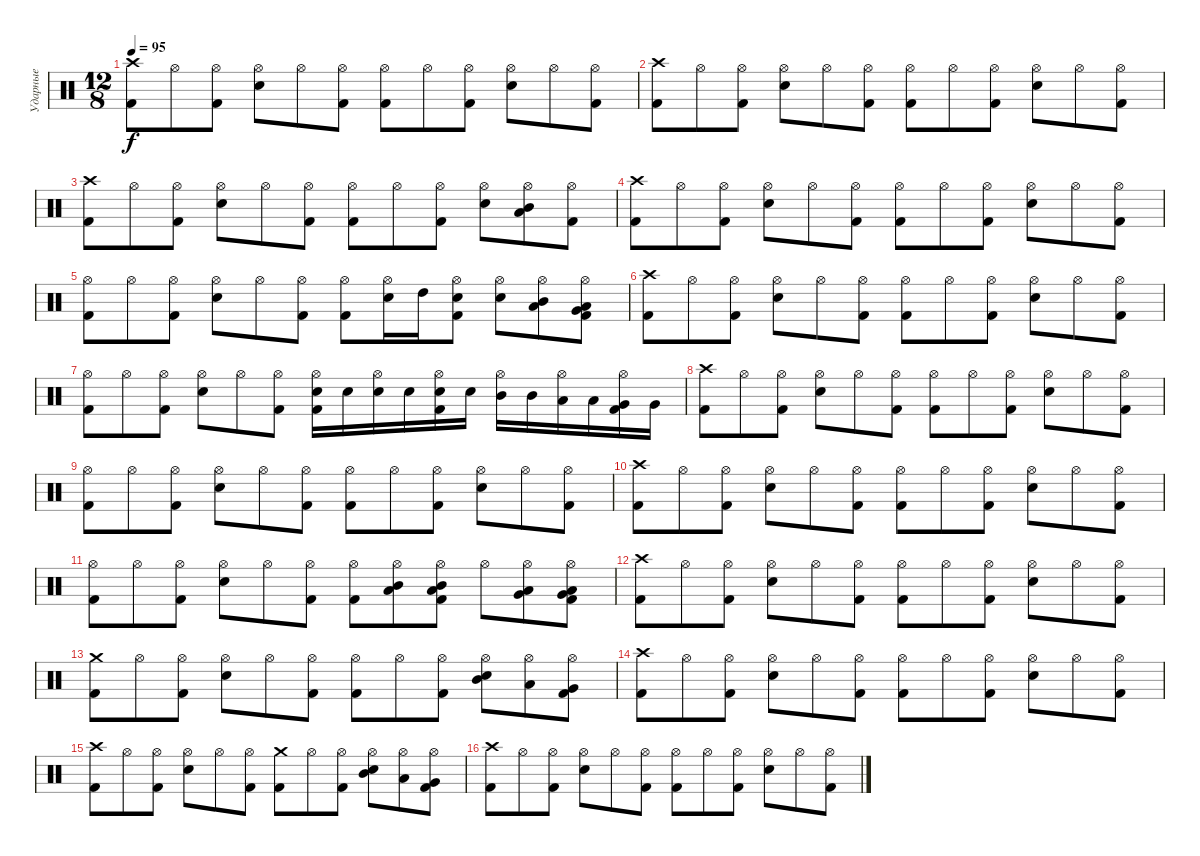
\track ("Ударные" "Ударные") {instrument percussion}
\staff {score}
\articulation defaults
\ts (12 8)
\tempo 95
\clef neutral
\ks c
("Crash high (hit)" "Kick (hit) 2").8{dy f} "Hi-Hat (open)".8 ("Hi-Hat (open)" "Kick (hit) 2").8 ("Hi-Hat (open)" "Electric Snare (hit)").8 "Hi-Hat (open)".8 ("Hi-Hat (open)" "Kick (hit) 2").8 ("Hi-Hat (open)" "Kick (hit) 2").8 "Hi-Hat (open)".8 ("Hi-Hat (open)" "Kick (hit) 2").8 ("Hi-Hat (open)" "Electric Snare (hit)").8 "Hi-Hat (open)".8 ("Hi-Hat (open)" "Kick (hit) 2").8 |
("Crash high (hit)" "Kick (hit) 2").8 "Hi-Hat (open)".8 ("Hi-Hat (open)" "Kick (hit) 2").8 ("Hi-Hat (open)" "Electric Snare (hit)").8 "Hi-Hat (open)".8 ("Hi-Hat (open)" "Kick (hit) 2").8 ("Hi-Hat (open)" "Kick (hit) 2").8 "Hi-Hat (open)".8 ("Hi-Hat (open)" "Kick (hit) 2").8 ("Hi-Hat (open)" "Electric Snare (hit)").8 "Hi-Hat (open)".8 ("Hi-Hat (open)" "Kick (hit) 2").8 |
("Crash high (hit)" "Kick (hit) 2").8 "Hi-Hat (open)".8 ("Hi-Hat (open)" "Kick (hit) 2").8 ("Hi-Hat (open)" "Electric Snare (hit)").8 "Hi-Hat (open)".8 ("Hi-Hat (open)" "Kick (hit) 2").8 ("Hi-Hat (open)" "Kick (hit) 2").8 "Hi-Hat (open)".8 ("Hi-Hat (open)" "Kick (hit) 2").8 ("Hi-Hat (open)" "Electric Snare (hit)").8 ("Hi-Hat (open)" "Mid Tom (hit)" "Low Tom (hit)").8 ("Hi-Hat (open)" "Kick (hit) 2").8 |
("Crash high (hit)" "Kick (hit) 2").8 "Hi-Hat (open)".8 ("Hi-Hat (open)" "Kick (hit) 2").8 ("Hi-Hat (open)" "Electric Snare (hit)").8 "Hi-Hat (open)".8 ("Hi-Hat (open)" "Kick (hit) 2").8 ("Hi-Hat (open)" "Kick (hit) 2").8 "Hi-Hat (open)".8 ("Hi-Hat (open)" "Kick (hit) 2").8 ("Hi-Hat (open)" "Electric Snare (hit)").8 "Hi-Hat (open)".8 ("Hi-Hat (open)" "Kick (hit) 2").8 |
("Hi-Hat (open)" "Kick (hit) 2").8 "Hi-Hat (open)".8 ("Hi-Hat (open)" "Kick (hit) 2").8 ("Hi-Hat (open)" "Electric Snare (hit)").8 "Hi-Hat (open)".8 ("Hi-Hat (open)" "Kick (hit) 2").8 ("Hi-Hat (open)" "Kick (hit) 2").8 ("Hi-Hat (open)" "Electric Snare (hit)").16 "High Tom (hit)".16 ("Hi-Hat (open)" "Electric Snare (hit)" "Kick (hit) 2").8 ("Hi-Hat (open)" "Electric Snare (hit)").8 ("Hi-Hat (open)" "Mid Tom (hit)" "Low Tom (hit)").8 ("Hi-Hat (open)" "Low Tom (hit)" "Very Low Tom (hit)" "Kick (hit) 2").8 |
("Crash high (hit)" "Kick (hit) 2").8 "Hi-Hat (open)".8 ("Hi-Hat (open)" "Kick (hit) 2").8 ("Hi-Hat (open)" "Electric Snare (hit)").8 "Hi-Hat (open)".8 ("Hi-Hat (open)" "Kick (hit) 2").8 ("Hi-Hat (open)" "Kick (hit) 2").8 "Hi-Hat (open)".8 ("Hi-Hat (open)" "Kick (hit) 2").8 ("Hi-Hat (open)" "Electric Snare (hit)").8 "Hi-Hat (open)".8 ("Hi-Hat (open)" "Kick (hit) 2").8 |
("Hi-Hat (open)" "Kick (hit) 2").8 "Hi-Hat (open)".8 ("Hi-Hat (open)" "Kick (hit) 2").8 ("Hi-Hat (open)" "Electric Snare (hit)").8 "Hi-Hat (open)".8 ("Hi-Hat (open)" "Kick (hit) 2").8 ("Hi-Hat (open)" "Electric Snare (hit)" "Kick (hit) 2").16 "Electric Snare (hit)".16 ("Hi-Hat (open)" "Electric Snare (hit)").16 "Electric Snare (hit)".16 ("Hi-Hat (open)" "Electric Snare (hit)" "Kick (hit) 2").16 "Electric Snare (hit)".16 ("Hi-Hat (open)" "Mid Tom (hit)").16 "Mid Tom (hit)".16 ("Hi-Hat (open)" "Low Tom (hit)").16 "Low Tom (hit)".16 ("Hi-Hat (open)" "Very Low Tom (hit)" "Kick (hit) 2").16 "Very Low Tom (hit)".16 |
("Crash high (hit)" "Kick (hit) 2").8 "Hi-Hat (open)".8 ("Hi-Hat (open)" "Kick (hit) 2").8 ("Hi-Hat (open)" "Electric Snare (hit)").8 "Hi-Hat (open)".8 ("Hi-Hat (open)" "Kick (hit) 2").8 ("Hi-Hat (open)" "Kick (hit) 2").8 "Hi-Hat (open)".8 ("Hi-Hat (open)" "Kick (hit) 2").8 ("Hi-Hat (open)" "Electric Snare (hit)").8 "Hi-Hat (open)".8 ("Hi-Hat (open)" "Kick (hit) 2").8 |
("Hi-Hat (open)" "Kick (hit) 2").8 "Hi-Hat (open)".8 ("Hi-Hat (open)" "Kick (hit) 2").8 ("Hi-Hat (open)" "Electric Snare (hit)").8 "Hi-Hat (open)".8 ("Hi-Hat (open)" "Kick (hit) 2").8 ("Hi-Hat (open)" "Kick (hit) 2").8 "Hi-Hat (open)".8 ("Hi-Hat (open)" "Kick (hit) 2").8 ("Hi-Hat (open)" "Electric Snare (hit)").8 "Hi-Hat (open)".8 ("Hi-Hat (open)" "Kick (hit) 2").8 |
("Crash high (hit)" "Kick (hit) 2").8 "Hi-Hat (open)".8 ("Hi-Hat (open)" "Kick (hit) 2").8 ("Hi-Hat (open)" "Electric Snare (hit)").8 "Hi-Hat (open)".8 ("Hi-Hat (open)" "Kick (hit) 2").8 ("Hi-Hat (open)" "Kick (hit) 2").8 "Hi-Hat (open)".8 ("Hi-Hat (open)" "Kick (hit) 2").8 ("Hi-Hat (open)" "Electric Snare (hit)").8 "Hi-Hat (open)".8 ("Hi-Hat (open)" "Kick (hit) 2").8 |
("Hi-Hat (open)" "Kick (hit) 2").8 "Hi-Hat (open)".8 ("Hi-Hat (open)" "Kick (hit) 2").8 ("Hi-Hat (open)" "Electric Snare (hit)").8 "Hi-Hat (open)".8 ("Hi-Hat (open)" "Kick (hit) 2").8 ("Hi-Hat (open)" "Kick (hit) 2").8 ("Hi-Hat (open)" "Mid Tom (hit)" "Low Tom (hit)").8 ("Hi-Hat (open)" "Mid Tom (hit)" "Low Tom (hit)" "Kick (hit) 2").8 "Hi-Hat (open)".8 ("Hi-Hat (open)" "Low Tom (hit)" "Very Low Tom (hit)").8 ("Hi-Hat (open)" "Very Low Tom (hit)" "Low Floor Tom (hit)" "Kick (hit) 2").8 |
("Crash high (hit)" "Kick (hit) 2").8 "Hi-Hat (open)".8 ("Hi-Hat (open)" "Kick (hit) 2").8 ("Hi-Hat (open)" "Electric Snare (hit)").8 "Hi-Hat (open)".8 ("Hi-Hat (open)" "Kick (hit) 2").8 ("Hi-Hat (open)" "Kick (hit) 2").8 "Hi-Hat (open)".8 ("Hi-Hat (open)" "Kick (hit) 2").8 ("Hi-Hat (open)" "Electric Snare (hit)").8 "Hi-Hat (open)".8 ("Hi-Hat (open)" "Kick (hit) 2").8 |
("Crash medium (hit)" "Kick (hit) 2").8 "Hi-Hat (open)".8 ("Hi-Hat (open)" "Kick (hit) 2").8 ("Hi-Hat (open)" "Electric Snare (hit)").8 "Hi-Hat (open)".8 ("Hi-Hat (open)" "Kick (hit) 2").8 ("Hi-Hat (open)" "Kick (hit) 2").8 "Hi-Hat (open)".8 ("Hi-Hat (open)" "Kick (hit) 2").8 ("Hi-Hat (open)" "Mid Tom (hit)" "Electric Snare (hit)").8 ("Hi-Hat (open)" "Low Tom (hit)").8 ("Hi-Hat (open)" "Very Low Tom (hit)" "Kick (hit) 2").8 |
("Crash high (hit)" "Kick (hit) 2").8 "Hi-Hat (open)".8 ("Hi-Hat (open)" "Kick (hit) 2").8 ("Hi-Hat (open)" "Electric Snare (hit)").8 "Hi-Hat (open)".8 ("Hi-Hat (open)" "Kick (hit) 2").8 ("Hi-Hat (open)" "Kick (hit) 2").8 "Hi-Hat (open)".8 ("Hi-Hat (open)" "Kick (hit) 2").8 ("Hi-Hat (open)" "Electric Snare (hit)").8 "Hi-Hat (open)".8 ("Hi-Hat (open)" "Kick (hit) 2").8 |
("Crash high (hit)" "Kick (hit) 2").8 "Hi-Hat (open)".8 ("Hi-Hat (open)" "Kick (hit) 2").8 ("Hi-Hat (open)" "Electric Snare (hit)").8 "Hi-Hat (open)".8 ("Hi-Hat (open)" "Kick (hit) 2").8 ("Crash medium (hit)" "Kick (hit) 2").8 "Hi-Hat (open)".8 ("Hi-Hat (open)" "Kick (hit) 2").8 ("Hi-Hat (open)" "Mid Tom (hit)" "Electric Snare (hit)").8 ("Hi-Hat (open)" "Low Tom (hit)").8 ("Hi-Hat (open)" "Very Low Tom (hit)" "Kick (hit) 2").8 |
("Crash high (hit)" "Kick (hit) 2").8 "Hi-Hat (open)".8 ("Hi-Hat (open)" "Kick (hit) 2").8 ("Hi-Hat (open)" "Electric Snare (hit)").8 "Hi-Hat (open)".8 ("Hi-Hat (open)" "Kick (hit) 2").8 ("Hi-Hat (open)" "Kick (hit) 2").8 "Hi-Hat (open)".8 ("Hi-Hat (open)" "Kick (hit) 2").8 ("Hi-Hat (open)" "Electric Snare (hit)").8 "Hi-Hat (open)".8 ("Hi-Hat (open)" "Kick (hit) 2").8
